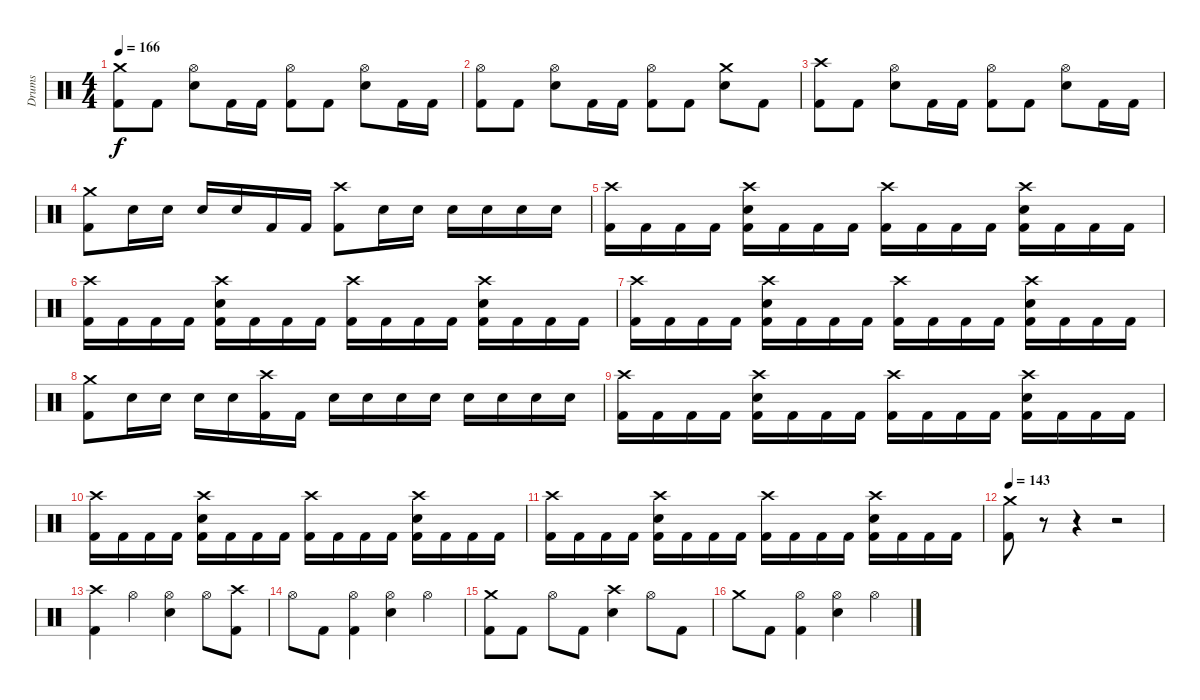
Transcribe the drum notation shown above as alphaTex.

\track ("Drums" "Drums") {instrument percussion}
\staff {score}
\articulation defaults
\ts (4 4)
\tempo 166
\clef neutral
\ks c
("Crash medium (hit)" "Kick (hit) 2").8{dy f} "Kick (hit) 2".8 ("Hi-Hat (open)" "Electric Snare (hit)").8 "Kick (hit) 2".16 "Kick (hit) 2".16 ("Hi-Hat (open)" "Kick (hit) 2").8 "Kick (hit) 2".8 ("Hi-Hat (open)" "Electric Snare (hit)").8 "Kick (hit) 2".16 "Kick (hit) 2".16 |
("Hi-Hat (open)" "Kick (hit) 2").8 "Kick (hit) 2".8 ("Hi-Hat (open)" "Electric Snare (hit)").8 "Kick (hit) 2".16 "Kick (hit) 2".16 ("Hi-Hat (open)" "Kick (hit) 2").8 "Kick (hit) 2".8 ("Crash medium (hit)" "Electric Snare (hit)").8 "Kick (hit) 2".8 |
("Crash high (hit)" "Kick (hit) 2").8 "Kick (hit) 2".8 ("Hi-Hat (open)" "Electric Snare (hit)").8 "Kick (hit) 2".16 "Kick (hit) 2".16 ("Hi-Hat (open)" "Kick (hit) 2").8 "Kick (hit) 2".8 ("Hi-Hat (open)" "Electric Snare (hit)").8 "Kick (hit) 2".16 "Kick (hit) 2".16 |
("Crash medium (hit)" "Kick (hit) 2").8 "Electric Snare (hit)".16 "Electric Snare (hit)".16 "Electric Snare (hit)".16 "Electric Snare (hit)".16 "Kick (hit) 2".16 "Kick (hit) 2".16 ("Crash high (hit)" "Kick (hit) 2").8 "Electric Snare (hit)".16 "Electric Snare (hit)".16 "Electric Snare (hit)".16 "Electric Snare (hit)".16 "Electric Snare (hit)".16 "Electric Snare (hit)".16 |
("Crash high (hit)" "Kick (hit) 2").16 "Kick (hit) 2".16 "Kick (hit) 2".16 "Kick (hit) 2".16 ("Crash high (hit)" "Electric Snare (hit)" "Kick (hit) 2").16 "Kick (hit) 2".16 "Kick (hit) 2".16 "Kick (hit) 2".16 ("Crash high (hit)" "Kick (hit) 2").16 "Kick (hit) 2".16 "Kick (hit) 2".16 "Kick (hit) 2".16 ("Crash high (hit)" "Electric Snare (hit)" "Kick (hit) 2").16 "Kick (hit) 2".16 "Kick (hit) 2".16 "Kick (hit) 2".16 |
("Crash high (hit)" "Kick (hit) 2").16 "Kick (hit) 2".16 "Kick (hit) 2".16 "Kick (hit) 2".16 ("Crash high (hit)" "Electric Snare (hit)" "Kick (hit) 2").16 "Kick (hit) 2".16 "Kick (hit) 2".16 "Kick (hit) 2".16 ("Crash high (hit)" "Kick (hit) 2").16 "Kick (hit) 2".16 "Kick (hit) 2".16 "Kick (hit) 2".16 ("Crash high (hit)" "Electric Snare (hit)" "Kick (hit) 2").16 "Kick (hit) 2".16 "Kick (hit) 2".16 "Kick (hit) 2".16 |
("Crash high (hit)" "Kick (hit) 2").16 "Kick (hit) 2".16 "Kick (hit) 2".16 "Kick (hit) 2".16 ("Crash high (hit)" "Electric Snare (hit)" "Kick (hit) 2").16 "Kick (hit) 2".16 "Kick (hit) 2".16 "Kick (hit) 2".16 ("Crash high (hit)" "Kick (hit) 2").16 "Kick (hit) 2".16 "Kick (hit) 2".16 "Kick (hit) 2".16 ("Crash high (hit)" "Electric Snare (hit)" "Kick (hit) 2").16 "Kick (hit) 2".16 "Kick (hit) 2".16 "Kick (hit) 2".16 |
("Crash medium (hit)" "Kick (hit) 2").8 "Electric Snare (hit)".16 "Electric Snare (hit)".16 "Electric Snare (hit)".16 "Electric Snare (hit)".16 ("Crash high (hit)" "Kick (hit) 2").16 "Kick (hit) 2".16 "Electric Snare (hit)".16 "Electric Snare (hit)".16 "Electric Snare (hit)".16 "Electric Snare (hit)".16 "Electric Snare (hit)".16 "Electric Snare (hit)".16 "Electric Snare (hit)".16 "Electric Snare (hit)".16 |
("Crash high (hit)" "Kick (hit) 2").16 "Kick (hit) 2".16 "Kick (hit) 2".16 "Kick (hit) 2".16 ("Crash high (hit)" "Electric Snare (hit)" "Kick (hit) 2").16 "Kick (hit) 2".16 "Kick (hit) 2".16 "Kick (hit) 2".16 ("Crash high (hit)" "Kick (hit) 2").16 "Kick (hit) 2".16 "Kick (hit) 2".16 "Kick (hit) 2".16 ("Crash high (hit)" "Electric Snare (hit)" "Kick (hit) 2").16 "Kick (hit) 2".16 "Kick (hit) 2".16 "Kick (hit) 2".16 |
("Crash high (hit)" "Kick (hit) 2").16 "Kick (hit) 2".16 "Kick (hit) 2".16 "Kick (hit) 2".16 ("Crash high (hit)" "Electric Snare (hit)" "Kick (hit) 2").16 "Kick (hit) 2".16 "Kick (hit) 2".16 "Kick (hit) 2".16 ("Crash high (hit)" "Kick (hit) 2").16 "Kick (hit) 2".16 "Kick (hit) 2".16 "Kick (hit) 2".16 ("Crash high (hit)" "Electric Snare (hit)" "Kick (hit) 2").16 "Kick (hit) 2".16 "Kick (hit) 2".16 "Kick (hit) 2".16 |
("Crash high (hit)" "Kick (hit) 2").16 "Kick (hit) 2".16 "Kick (hit) 2".16 "Kick (hit) 2".16 ("Crash high (hit)" "Electric Snare (hit)" "Kick (hit) 2").16 "Kick (hit) 2".16 "Kick (hit) 2".16 "Kick (hit) 2".16 ("Crash high (hit)" "Kick (hit) 2").16 "Kick (hit) 2".16 "Kick (hit) 2".16 "Kick (hit) 2".16 ("Crash high (hit)" "Electric Snare (hit)" "Kick (hit) 2").16 "Kick (hit) 2".16 "Kick (hit) 2".16 "Kick (hit) 2".16 |
\tempo 143
("Crash medium (hit)" "Kick (hit) 2").8 r.8 r.4 r.2 |
("Crash high (hit)" "Kick (hit) 2").4 "Hi-Hat (open)".4 ("Hi-Hat (open)" "Electric Snare (hit)").4 "Hi-Hat (open)".8 ("Crash high (hit)" "Kick (hit) 2").8 |
"Hi-Hat (open)".8 "Kick (hit) 2".8 ("Hi-Hat (open)" "Kick (hit) 2").4 ("Hi-Hat (open)" "Electric Snare (hit)").4 "Hi-Hat (open)".4 |
("Crash medium (hit)" "Kick (hit) 2").8 "Kick (hit) 2".8 "Hi-Hat (open)".8 "Kick (hit) 2".8 ("Crash high (hit)" "Electric Snare (hit)").4 "Hi-Hat (open)".8 "Kick (hit) 2".8 |
"Crash medium (hit)".8 "Kick (hit) 2".8 ("Hi-Hat (open)" "Kick (hit) 2").4 ("Hi-Hat (open)" "Electric Snare (hit)").4 "Hi-Hat (open)".4
